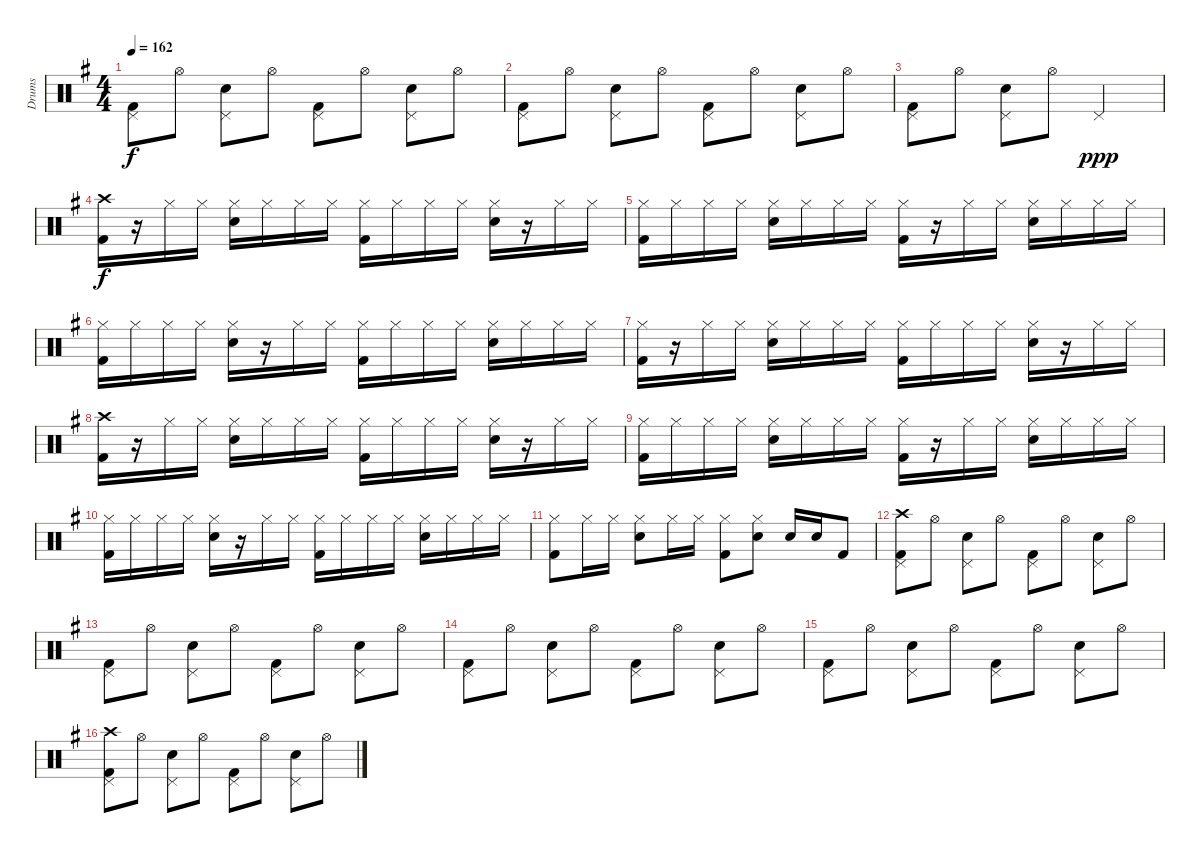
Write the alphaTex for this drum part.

\track ("Drums" "Drums") {instrument percussion}
\staff {score}
\articulation defaults
\ts (4 4)
\tempo 162
\clef neutral
\ks g
("Pedal Hi-Hat (hit)" "Kick (hit) 2").8{dy f} "Hi-Hat (open)".8 ("Electric Snare (hit)" "Pedal Hi-Hat (hit)").8 "Hi-Hat (open)".8 ("Pedal Hi-Hat (hit)" "Kick (hit) 2").8 "Hi-Hat (open)".8 ("Electric Snare (hit)" "Pedal Hi-Hat (hit)").8 "Hi-Hat (open)".8 |
("Pedal Hi-Hat (hit)" "Kick (hit) 2").8 "Hi-Hat (open)".8 ("Electric Snare (hit)" "Pedal Hi-Hat (hit)").8 "Hi-Hat (open)".8 ("Pedal Hi-Hat (hit)" "Kick (hit) 2").8 "Hi-Hat (open)".8 ("Electric Snare (hit)" "Pedal Hi-Hat (hit)").8 "Hi-Hat (open)".8 |
("Pedal Hi-Hat (hit)" "Kick (hit) 2").8 "Hi-Hat (open)".8 ("Electric Snare (hit)" "Pedal Hi-Hat (hit)").8 "Hi-Hat (open)".8 "Pedal Hi-Hat (hit)".2{dy ppp} |
("Kick (hit) 2" "Crash high (hit)").16{dy f} r.16 "Hi-Hat (closed)".16 "Hi-Hat (closed)".16 ("Electric Snare (hit)" "Hi-Hat (closed)").16 "Hi-Hat (closed)".16 "Hi-Hat (closed)".16 "Hi-Hat (closed)".16 ("Kick (hit) 2" "Hi-Hat (closed)").16 "Hi-Hat (closed)".16 "Hi-Hat (closed)".16 "Hi-Hat (closed)".16 ("Electric Snare (hit)" "Hi-Hat (closed)").16 r.16 "Hi-Hat (closed)".16 "Hi-Hat (closed)".16 |
("Kick (hit) 2" "Hi-Hat (closed)").16 "Hi-Hat (closed)".16 "Hi-Hat (closed)".16 "Hi-Hat (closed)".16 ("Electric Snare (hit)" "Hi-Hat (closed)").16 "Hi-Hat (closed)".16 "Hi-Hat (closed)".16 "Hi-Hat (closed)".16 ("Kick (hit) 2" "Hi-Hat (closed)").16 r.16 "Hi-Hat (closed)".16 "Hi-Hat (closed)".16 ("Electric Snare (hit)" "Hi-Hat (closed)").16 "Hi-Hat (closed)".16 "Hi-Hat (closed)".16 "Hi-Hat (closed)".16 |
("Kick (hit) 2" "Hi-Hat (closed)").16 "Hi-Hat (closed)".16 "Hi-Hat (closed)".16 "Hi-Hat (closed)".16 ("Electric Snare (hit)" "Hi-Hat (closed)").16 r.16 "Hi-Hat (closed)".16 "Hi-Hat (closed)".16 ("Kick (hit) 2" "Hi-Hat (closed)").16 "Hi-Hat (closed)".16 "Hi-Hat (closed)".16 "Hi-Hat (closed)".16 ("Electric Snare (hit)" "Hi-Hat (closed)").16 "Hi-Hat (closed)".16 "Hi-Hat (closed)".16 "Hi-Hat (closed)".16 |
("Kick (hit) 2" "Hi-Hat (closed)").16 r.16 "Hi-Hat (closed)".16 "Hi-Hat (closed)".16 ("Electric Snare (hit)" "Hi-Hat (closed)").16 "Hi-Hat (closed)".16 "Hi-Hat (closed)".16 "Hi-Hat (closed)".16 ("Kick (hit) 2" "Hi-Hat (closed)").16 "Hi-Hat (closed)".16 "Hi-Hat (closed)".16 "Hi-Hat (closed)".16 ("Electric Snare (hit)" "Hi-Hat (closed)").16 r.16 "Hi-Hat (closed)".16 "Hi-Hat (closed)".16 |
("Kick (hit) 2" "Crash high (hit)").16 r.16 "Hi-Hat (closed)".16 "Hi-Hat (closed)".16 ("Electric Snare (hit)" "Hi-Hat (closed)").16 "Hi-Hat (closed)".16 "Hi-Hat (closed)".16 "Hi-Hat (closed)".16 ("Kick (hit) 2" "Hi-Hat (closed)").16 "Hi-Hat (closed)".16 "Hi-Hat (closed)".16 "Hi-Hat (closed)".16 ("Electric Snare (hit)" "Hi-Hat (closed)").16 r.16 "Hi-Hat (closed)".16 "Hi-Hat (closed)".16 |
("Kick (hit) 2" "Hi-Hat (closed)").16 "Hi-Hat (closed)".16 "Hi-Hat (closed)".16 "Hi-Hat (closed)".16 ("Electric Snare (hit)" "Hi-Hat (closed)").16 "Hi-Hat (closed)".16 "Hi-Hat (closed)".16 "Hi-Hat (closed)".16 ("Kick (hit) 2" "Hi-Hat (closed)").16 r.16 "Hi-Hat (closed)".16 "Hi-Hat (closed)".16 ("Electric Snare (hit)" "Hi-Hat (closed)").16 "Hi-Hat (closed)".16 "Hi-Hat (closed)".16 "Hi-Hat (closed)".16 |
("Kick (hit) 2" "Hi-Hat (closed)").16 "Hi-Hat (closed)".16 "Hi-Hat (closed)".16 "Hi-Hat (closed)".16 ("Electric Snare (hit)" "Hi-Hat (closed)").16 r.16 "Hi-Hat (closed)".16 "Hi-Hat (closed)".16 ("Kick (hit) 2" "Hi-Hat (closed)").16 "Hi-Hat (closed)".16 "Hi-Hat (closed)".16 "Hi-Hat (closed)".16 ("Electric Snare (hit)" "Hi-Hat (closed)").16 "Hi-Hat (closed)".16 "Hi-Hat (closed)".16 "Hi-Hat (closed)".16 |
("Kick (hit) 2" "Hi-Hat (closed)").8 "Hi-Hat (closed)".16 "Hi-Hat (closed)".16 ("Electric Snare (hit)" "Hi-Hat (closed)").8 "Hi-Hat (closed)".16 "Hi-Hat (closed)".16 ("Hi-Hat (closed)" "Kick (hit) 2").8 ("Hi-Hat (closed)" "Electric Snare (hit)").8 "Electric Snare (hit)".16 "Electric Snare (hit)".16 "Kick (hit) 2".8 |
("Crash high (hit)" "Pedal Hi-Hat (hit)" "Kick (hit) 2").8 "Hi-Hat (open)".8 ("Electric Snare (hit)" "Pedal Hi-Hat (hit)").8 "Hi-Hat (open)".8 ("Pedal Hi-Hat (hit)" "Kick (hit) 2").8 "Hi-Hat (open)".8 ("Electric Snare (hit)" "Pedal Hi-Hat (hit)").8 "Hi-Hat (open)".8 |
("Pedal Hi-Hat (hit)" "Kick (hit) 2").8 "Hi-Hat (open)".8 ("Electric Snare (hit)" "Pedal Hi-Hat (hit)").8 "Hi-Hat (open)".8 ("Pedal Hi-Hat (hit)" "Kick (hit) 2").8 "Hi-Hat (open)".8 ("Electric Snare (hit)" "Pedal Hi-Hat (hit)").8 "Hi-Hat (open)".8 |
("Pedal Hi-Hat (hit)" "Kick (hit) 2").8 "Hi-Hat (open)".8 ("Electric Snare (hit)" "Pedal Hi-Hat (hit)").8 "Hi-Hat (open)".8 ("Pedal Hi-Hat (hit)" "Kick (hit) 2").8 "Hi-Hat (open)".8 ("Electric Snare (hit)" "Pedal Hi-Hat (hit)").8 "Hi-Hat (open)".8 |
("Pedal Hi-Hat (hit)" "Kick (hit) 2").8 "Hi-Hat (open)".8 ("Electric Snare (hit)" "Pedal Hi-Hat (hit)").8 "Hi-Hat (open)".8 ("Pedal Hi-Hat (hit)" "Kick (hit) 2").8 "Hi-Hat (open)".8 ("Electric Snare (hit)" "Pedal Hi-Hat (hit)").8 "Hi-Hat (open)".8 |
("Crash high (hit)" "Pedal Hi-Hat (hit)" "Kick (hit) 2").8 "Hi-Hat (open)".8 ("Electric Snare (hit)" "Pedal Hi-Hat (hit)").8 "Hi-Hat (open)".8 ("Pedal Hi-Hat (hit)" "Kick (hit) 2").8 "Hi-Hat (open)".8 ("Electric Snare (hit)" "Pedal Hi-Hat (hit)").8 "Hi-Hat (open)".8
